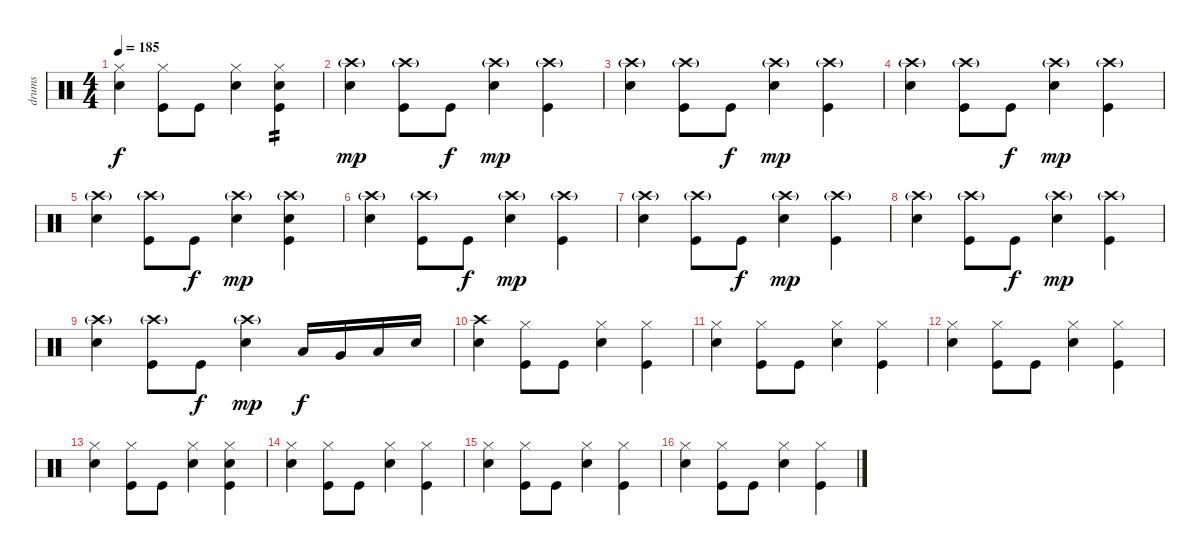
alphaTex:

\track ("drums" "drums") {instrument percussion}
\staff {score}
\articulation defaults
\ts (4 4)
\tempo 185
\clef neutral
\ks c
("Hi-Hat (closed)" "Electric Snare (hit)").4{dy f} ("Hi-Hat (closed)" "Kick (hit)").8 "Kick (hit)".8 ("Hi-Hat (closed)" "Electric Snare (hit)").4 ("Hi-Hat (closed)" "Electric Snare (hit)" "Kick (hit)").4{tp 2} |
("Crash high (hit)"{g} "Electric Snare (hit)").4{dy mp} ("Crash high (hit)"{g} "Kick (hit)").8 "Kick (hit)".8{dy f} ("Crash high (hit)"{g} "Electric Snare (hit)").4{dy mp} ("Crash high (hit)"{g} "Kick (hit)").4 |
("Crash high (hit)"{g} "Electric Snare (hit)").4 ("Crash high (hit)"{g} "Kick (hit)").8 "Kick (hit)".8{dy f} ("Crash high (hit)"{g} "Electric Snare (hit)").4{dy mp} ("Crash high (hit)"{g} "Kick (hit)").4 |
("Crash high (hit)"{g} "Electric Snare (hit)").4 ("Crash high (hit)"{g} "Kick (hit)").8 "Kick (hit)".8{dy f} ("Crash high (hit)"{g} "Electric Snare (hit)").4{dy mp} ("Crash high (hit)"{g} "Kick (hit)").4 |
("Crash high (hit)"{g} "Electric Snare (hit)").4 ("Crash high (hit)"{g} "Kick (hit)").8 "Kick (hit)".8{dy f} ("Crash high (hit)"{g} "Electric Snare (hit)").4{dy mp} ("Crash high (hit)"{g} "Electric Snare (hit)" "Kick (hit)").4 |
("Crash high (hit)"{g} "Electric Snare (hit)").4 ("Crash high (hit)"{g} "Kick (hit)").8 "Kick (hit)".8{dy f} ("Crash high (hit)"{g} "Electric Snare (hit)").4{dy mp} ("Crash high (hit)"{g} "Kick (hit)").4 |
("Crash high (hit)"{g} "Electric Snare (hit)").4 ("Crash high (hit)"{g} "Kick (hit)").8 "Kick (hit)".8{dy f} ("Crash high (hit)"{g} "Electric Snare (hit)").4{dy mp} ("Crash high (hit)"{g} "Kick (hit)").4 |
("Crash high (hit)"{g} "Electric Snare (hit)").4 ("Crash high (hit)"{g} "Kick (hit)").8 "Kick (hit)".8{dy f} ("Crash high (hit)"{g} "Electric Snare (hit)").4{dy mp} ("Crash high (hit)"{g} "Kick (hit)").4 |
("Crash high (hit)"{g} "Electric Snare (hit)").4 ("Crash high (hit)"{g} "Kick (hit)").8 "Kick (hit)".8{dy f} ("Crash high (hit)"{g} "Electric Snare (hit)").4{dy mp} "Low Tom (hit)".16{dy f} "Very Low Tom (hit)".16 "Low Floor Tom (hit)".16 "Electric Snare (hit)".16 |
("Crash high (hit)" "Electric Snare (hit)").4 ("Hi-Hat (closed)" "Kick (hit)").8 "Kick (hit)".8 ("Hi-Hat (closed)" "Electric Snare (hit)").4 ("Hi-Hat (closed)" "Kick (hit)").4 |
("Hi-Hat (closed)" "Electric Snare (hit)").4 ("Hi-Hat (closed)" "Kick (hit)").8 "Kick (hit)".8 ("Hi-Hat (closed)" "Electric Snare (hit)").4 ("Hi-Hat (closed)" "Kick (hit)").4 |
("Hi-Hat (closed)" "Electric Snare (hit)").4 ("Hi-Hat (closed)" "Kick (hit)").8 "Kick (hit)".8 ("Hi-Hat (closed)" "Electric Snare (hit)").4 ("Hi-Hat (closed)" "Kick (hit)").4 |
("Hi-Hat (closed)" "Electric Snare (hit)").4 ("Hi-Hat (closed)" "Kick (hit)").8 "Kick (hit)".8 ("Hi-Hat (closed)" "Electric Snare (hit)").4 ("Hi-Hat (closed)" "Electric Snare (hit)" "Kick (hit)").4 |
("Hi-Hat (closed)" "Electric Snare (hit)").4 ("Hi-Hat (closed)" "Kick (hit)").8 "Kick (hit)".8 ("Hi-Hat (closed)" "Electric Snare (hit)").4 ("Hi-Hat (closed)" "Kick (hit)").4 |
("Hi-Hat (closed)" "Electric Snare (hit)").4 ("Hi-Hat (closed)" "Kick (hit)").8 "Kick (hit)".8 ("Hi-Hat (closed)" "Electric Snare (hit)").4 ("Hi-Hat (closed)" "Kick (hit)").4 |
("Hi-Hat (closed)" "Electric Snare (hit)").4 ("Hi-Hat (closed)" "Kick (hit)").8 "Kick (hit)".8 ("Hi-Hat (closed)" "Electric Snare (hit)").4 ("Hi-Hat (closed)" "Kick (hit)").4
